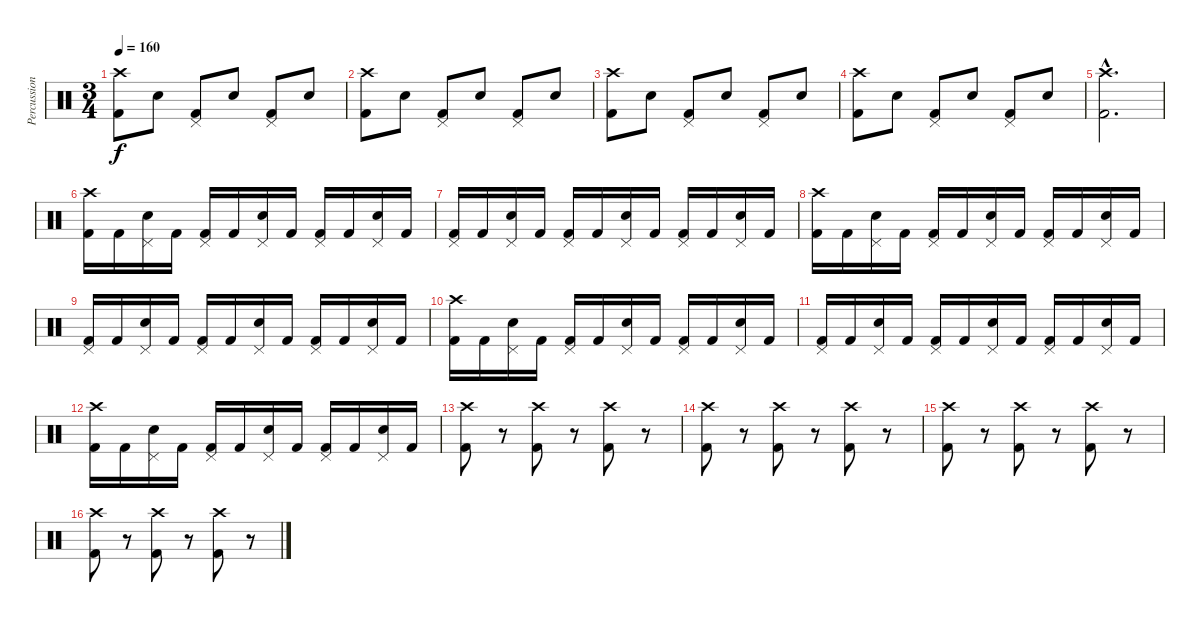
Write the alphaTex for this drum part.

\track ("Percussion" "Percussion") {instrument percussion}
\staff {score}
\articulation defaults
\ts (3 4)
\tempo 160
\clef neutral
\ks c
("Crash high (hit)" "Kick (hit) 2").8{dy f} "Snare (hit) 2".8 ("Pedal Hi-Hat (hit)" "Kick (hit) 2").8 "Snare (hit) 2".8 ("Pedal Hi-Hat (hit)" "Kick (hit) 2").8 "Snare (hit) 2".8 |
("Crash high (hit)" "Kick (hit) 2").8 "Snare (hit) 2".8 ("Pedal Hi-Hat (hit)" "Kick (hit) 2").8 "Snare (hit) 2".8 ("Pedal Hi-Hat (hit)" "Kick (hit) 2").8 "Snare (hit) 2".8 |
("Crash high (hit)" "Kick (hit) 2").8 "Snare (hit) 2".8 ("Pedal Hi-Hat (hit)" "Kick (hit) 2").8 "Snare (hit) 2".8 ("Pedal Hi-Hat (hit)" "Kick (hit) 2").8 "Snare (hit) 2".8 |
("Crash high (hit)" "Kick (hit) 2").8 "Snare (hit) 2".8 ("Pedal Hi-Hat (hit)" "Kick (hit) 2").8 "Snare (hit) 2".8 ("Pedal Hi-Hat (hit)" "Kick (hit) 2").8 "Snare (hit) 2".8 |
("Crash high (hit)"{hac} "Kick (hit) 2"{hac}).2{d} |
("Crash high (hit)" "Kick (hit) 2").16 "Kick (hit) 2".16 ("Pedal Hi-Hat (hit)" "Snare (hit) 2").16 "Kick (hit) 2".16 ("Pedal Hi-Hat (hit)" "Kick (hit) 2").16 "Kick (hit) 2".16 ("Pedal Hi-Hat (hit)" "Snare (hit) 2").16 "Kick (hit) 2".16 ("Pedal Hi-Hat (hit)" "Kick (hit) 2").16 "Kick (hit) 2".16 ("Pedal Hi-Hat (hit)" "Snare (hit) 2").16 "Kick (hit) 2".16 |
("Pedal Hi-Hat (hit)" "Kick (hit) 2").16 "Kick (hit) 2".16 ("Pedal Hi-Hat (hit)" "Snare (hit) 2").16 "Kick (hit) 2".16 ("Pedal Hi-Hat (hit)" "Kick (hit) 2").16 "Kick (hit) 2".16 ("Pedal Hi-Hat (hit)" "Snare (hit) 2").16 "Kick (hit) 2".16 ("Pedal Hi-Hat (hit)" "Kick (hit) 2").16 "Kick (hit) 2".16 ("Pedal Hi-Hat (hit)" "Snare (hit) 2").16 "Kick (hit) 2".16 |
("Crash high (hit)" "Kick (hit) 2").16 "Kick (hit) 2".16 ("Pedal Hi-Hat (hit)" "Snare (hit) 2").16 "Kick (hit) 2".16 ("Pedal Hi-Hat (hit)" "Kick (hit) 2").16 "Kick (hit) 2".16 ("Pedal Hi-Hat (hit)" "Snare (hit) 2").16 "Kick (hit) 2".16 ("Pedal Hi-Hat (hit)" "Kick (hit) 2").16 "Kick (hit) 2".16 ("Pedal Hi-Hat (hit)" "Snare (hit) 2").16 "Kick (hit) 2".16 |
("Pedal Hi-Hat (hit)" "Kick (hit) 2").16 "Kick (hit) 2".16 ("Pedal Hi-Hat (hit)" "Snare (hit) 2").16 "Kick (hit) 2".16 ("Pedal Hi-Hat (hit)" "Kick (hit) 2").16 "Kick (hit) 2".16 ("Pedal Hi-Hat (hit)" "Snare (hit) 2").16 "Kick (hit) 2".16 ("Pedal Hi-Hat (hit)" "Kick (hit) 2").16 "Kick (hit) 2".16 ("Pedal Hi-Hat (hit)" "Snare (hit) 2").16 "Kick (hit) 2".16 |
("Crash high (hit)" "Kick (hit) 2").16 "Kick (hit) 2".16 ("Pedal Hi-Hat (hit)" "Snare (hit) 2").16 "Kick (hit) 2".16 ("Pedal Hi-Hat (hit)" "Kick (hit) 2").16 "Kick (hit) 2".16 ("Pedal Hi-Hat (hit)" "Snare (hit) 2").16 "Kick (hit) 2".16 ("Pedal Hi-Hat (hit)" "Kick (hit) 2").16 "Kick (hit) 2".16 ("Pedal Hi-Hat (hit)" "Snare (hit) 2").16 "Kick (hit) 2".16 |
("Pedal Hi-Hat (hit)" "Kick (hit) 2").16 "Kick (hit) 2".16 ("Pedal Hi-Hat (hit)" "Snare (hit) 2").16 "Kick (hit) 2".16 ("Pedal Hi-Hat (hit)" "Kick (hit) 2").16 "Kick (hit) 2".16 ("Pedal Hi-Hat (hit)" "Snare (hit) 2").16 "Kick (hit) 2".16 ("Pedal Hi-Hat (hit)" "Kick (hit) 2").16 "Kick (hit) 2".16 ("Pedal Hi-Hat (hit)" "Snare (hit) 2").16 "Kick (hit) 2".16 |
("Crash high (hit)" "Kick (hit) 2").16 "Kick (hit) 2".16 ("Pedal Hi-Hat (hit)" "Snare (hit) 2").16 "Kick (hit) 2".16 ("Pedal Hi-Hat (hit)" "Kick (hit) 2").16 "Kick (hit) 2".16 ("Pedal Hi-Hat (hit)" "Snare (hit) 2").16 "Kick (hit) 2".16 ("Pedal Hi-Hat (hit)" "Kick (hit) 2").16 "Kick (hit) 2".16 ("Pedal Hi-Hat (hit)" "Snare (hit) 2").16 "Kick (hit) 2".16 |
("Crash high (hit)" "Kick (hit) 2").8 r.8 ("Crash high (hit)" "Kick (hit) 2").8 r.8 ("Crash high (hit)" "Kick (hit) 2").8 r.8 |
("Crash high (hit)" "Kick (hit) 2").8 r.8 ("Crash high (hit)" "Kick (hit) 2").8 r.8 ("Crash high (hit)" "Kick (hit) 2").8 r.8 |
("Crash high (hit)" "Kick (hit) 2").8 r.8 ("Crash high (hit)" "Kick (hit) 2").8 r.8 ("Crash high (hit)" "Kick (hit) 2").8 r.8 |
("Crash high (hit)" "Kick (hit) 2").8 r.8 ("Crash high (hit)" "Kick (hit) 2").8 r.8 ("Crash high (hit)" "Kick (hit) 2").8 r.8
